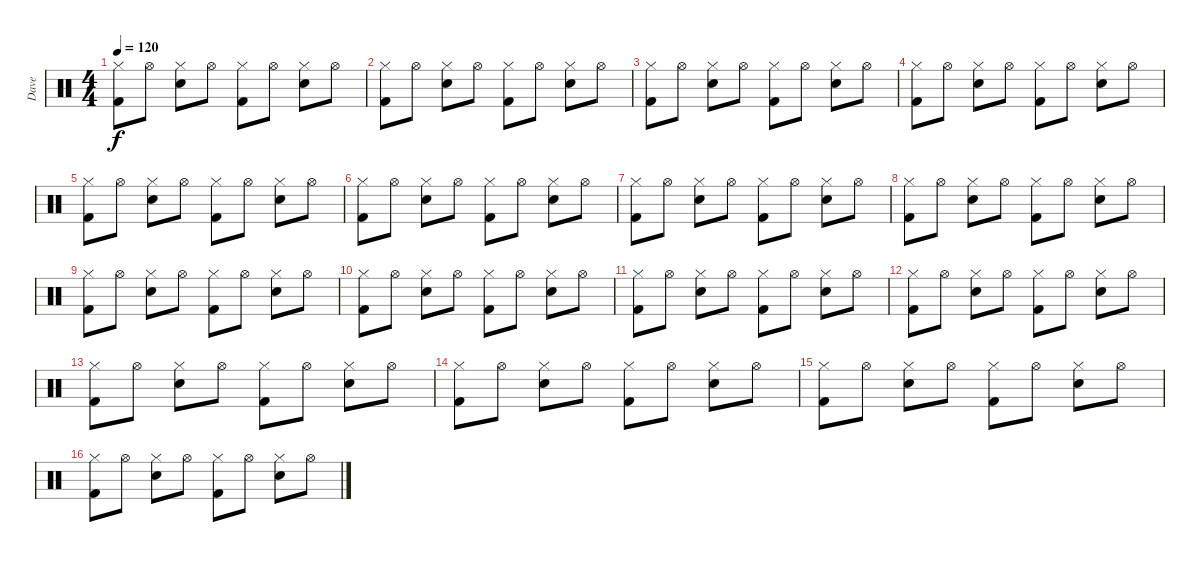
\track ("Dave" "Dave") {instrument percussion}
\staff {score}
\articulation defaults
\ts (4 4)
\tempo 120
\clef neutral
\ks c
("Hi-Hat (closed)" "Kick (hit) 2").8{dy f} "Hi-Hat (open)".8 ("Hi-Hat (closed)" "Snare (hit) 2").8 "Hi-Hat (open)".8 ("Hi-Hat (closed)" "Kick (hit) 2").8 "Hi-Hat (open)".8 ("Hi-Hat (closed)" "Snare (hit) 2").8 "Hi-Hat (open)".8 |
("Hi-Hat (closed)" "Kick (hit) 2").8 "Hi-Hat (open)".8 ("Hi-Hat (closed)" "Snare (hit) 2").8 "Hi-Hat (open)".8 ("Hi-Hat (closed)" "Kick (hit) 2").8 "Hi-Hat (open)".8 ("Hi-Hat (closed)" "Snare (hit) 2").8 "Hi-Hat (open)".8 |
("Hi-Hat (closed)" "Kick (hit) 2").8 "Hi-Hat (open)".8 ("Hi-Hat (closed)" "Snare (hit) 2").8 "Hi-Hat (open)".8 ("Hi-Hat (closed)" "Kick (hit) 2").8 "Hi-Hat (open)".8 ("Hi-Hat (closed)" "Snare (hit) 2").8 "Hi-Hat (open)".8 |
("Hi-Hat (closed)" "Kick (hit) 2").8 "Hi-Hat (open)".8 ("Hi-Hat (closed)" "Snare (hit) 2").8 "Hi-Hat (open)".8 ("Hi-Hat (closed)" "Kick (hit) 2").8 "Hi-Hat (open)".8 ("Hi-Hat (closed)" "Snare (hit) 2").8 "Hi-Hat (open)".8 |
("Hi-Hat (closed)" "Kick (hit) 2").8 "Hi-Hat (open)".8 ("Hi-Hat (closed)" "Snare (hit) 2").8 "Hi-Hat (open)".8 ("Hi-Hat (closed)" "Kick (hit) 2").8 "Hi-Hat (open)".8 ("Hi-Hat (closed)" "Snare (hit) 2").8 "Hi-Hat (open)".8 |
("Hi-Hat (closed)" "Kick (hit) 2").8 "Hi-Hat (open)".8 ("Hi-Hat (closed)" "Snare (hit) 2").8 "Hi-Hat (open)".8 ("Hi-Hat (closed)" "Kick (hit) 2").8 "Hi-Hat (open)".8 ("Hi-Hat (closed)" "Snare (hit) 2").8 "Hi-Hat (open)".8 |
("Hi-Hat (closed)" "Kick (hit) 2").8 "Hi-Hat (open)".8 ("Hi-Hat (closed)" "Snare (hit) 2").8 "Hi-Hat (open)".8 ("Hi-Hat (closed)" "Kick (hit) 2").8 "Hi-Hat (open)".8 ("Hi-Hat (closed)" "Snare (hit) 2").8 "Hi-Hat (open)".8 |
("Hi-Hat (closed)" "Kick (hit) 2").8 "Hi-Hat (open)".8 ("Hi-Hat (closed)" "Snare (hit) 2").8 "Hi-Hat (open)".8 ("Hi-Hat (closed)" "Kick (hit) 2").8 "Hi-Hat (open)".8 ("Hi-Hat (closed)" "Snare (hit) 2").8 "Hi-Hat (open)".8 |
("Hi-Hat (closed)" "Kick (hit) 2").8 "Hi-Hat (open)".8 ("Hi-Hat (closed)" "Snare (hit) 2").8 "Hi-Hat (open)".8 ("Hi-Hat (closed)" "Kick (hit) 2").8 "Hi-Hat (open)".8 ("Hi-Hat (closed)" "Snare (hit) 2").8 "Hi-Hat (open)".8 |
("Hi-Hat (closed)" "Kick (hit) 2").8 "Hi-Hat (open)".8 ("Hi-Hat (closed)" "Snare (hit) 2").8 "Hi-Hat (open)".8 ("Hi-Hat (closed)" "Kick (hit) 2").8 "Hi-Hat (open)".8 ("Hi-Hat (closed)" "Snare (hit) 2").8 "Hi-Hat (open)".8 |
("Hi-Hat (closed)" "Kick (hit) 2").8 "Hi-Hat (open)".8 ("Hi-Hat (closed)" "Snare (hit) 2").8 "Hi-Hat (open)".8 ("Hi-Hat (closed)" "Kick (hit) 2").8 "Hi-Hat (open)".8 ("Hi-Hat (closed)" "Snare (hit) 2").8 "Hi-Hat (open)".8 |
("Hi-Hat (closed)" "Kick (hit) 2").8 "Hi-Hat (open)".8 ("Hi-Hat (closed)" "Snare (hit) 2").8 "Hi-Hat (open)".8 ("Hi-Hat (closed)" "Kick (hit) 2").8 "Hi-Hat (open)".8 ("Hi-Hat (closed)" "Snare (hit) 2").8 "Hi-Hat (open)".8 |
("Hi-Hat (closed)" "Kick (hit) 2").8 "Hi-Hat (open)".8 ("Hi-Hat (closed)" "Snare (hit) 2").8 "Hi-Hat (open)".8 ("Hi-Hat (closed)" "Kick (hit) 2").8 "Hi-Hat (open)".8 ("Hi-Hat (closed)" "Snare (hit) 2").8 "Hi-Hat (open)".8 |
("Hi-Hat (closed)" "Kick (hit) 2").8 "Hi-Hat (open)".8 ("Hi-Hat (closed)" "Snare (hit) 2").8 "Hi-Hat (open)".8 ("Hi-Hat (closed)" "Kick (hit) 2").8 "Hi-Hat (open)".8 ("Hi-Hat (closed)" "Snare (hit) 2").8 "Hi-Hat (open)".8 |
("Hi-Hat (closed)" "Kick (hit) 2").8 "Hi-Hat (open)".8 ("Hi-Hat (closed)" "Snare (hit) 2").8 "Hi-Hat (open)".8 ("Hi-Hat (closed)" "Kick (hit) 2").8 "Hi-Hat (open)".8 ("Hi-Hat (closed)" "Snare (hit) 2").8 "Hi-Hat (open)".8 |
("Hi-Hat (closed)" "Kick (hit) 2").8 "Hi-Hat (open)".8 ("Hi-Hat (closed)" "Snare (hit) 2").8 "Hi-Hat (open)".8 ("Hi-Hat (closed)" "Kick (hit) 2").8 "Hi-Hat (open)".8 ("Hi-Hat (closed)" "Snare (hit) 2").8 "Hi-Hat (open)".8
